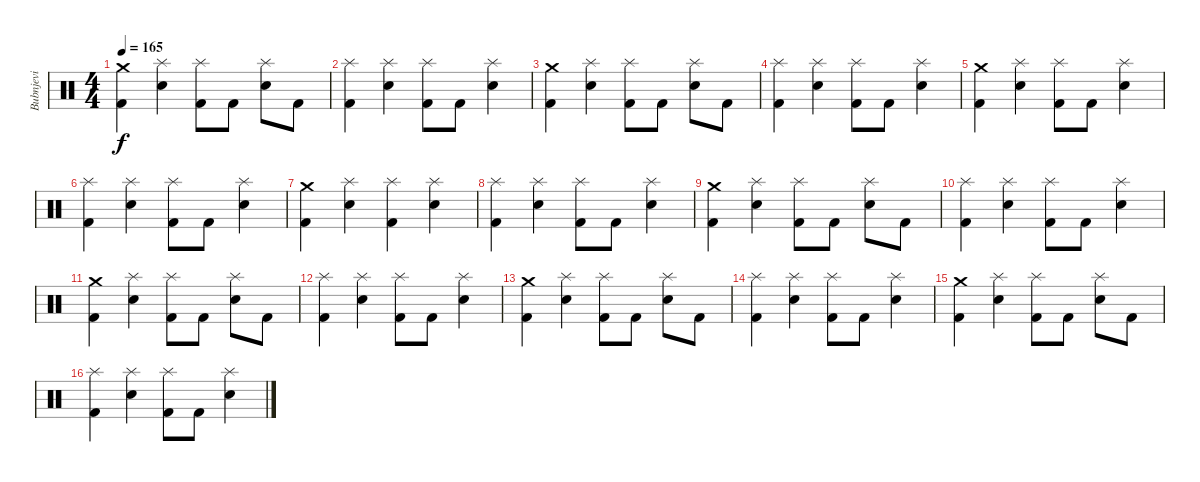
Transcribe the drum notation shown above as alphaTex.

\track ("Bubnjevi" "Bubnjevi") {instrument percussion}
\staff {score}
\articulation defaults
\ts (4 4)
\tempo 165
\clef neutral
\ks c
("Crash medium (hit)" "Kick (hit) 2").4{dy f} ("Splash (hit)" "Electric Snare (hit)").4 ("Splash (hit)" "Kick (hit) 2").8 "Kick (hit) 2".8 ("Splash (hit)" "Electric Snare (hit)").8 "Kick (hit) 2".8 |
("Splash (hit)" "Kick (hit) 2").4 ("Splash (hit)" "Electric Snare (hit)").4 ("Splash (hit)" "Kick (hit) 2").8 "Kick (hit) 2".8 ("Splash (hit)" "Electric Snare (hit)").4 |
("Crash medium (hit)" "Kick (hit) 2").4 ("Splash (hit)" "Electric Snare (hit)").4 ("Splash (hit)" "Kick (hit) 2").8 "Kick (hit) 2".8 ("Splash (hit)" "Electric Snare (hit)").8 "Kick (hit) 2".8 |
("Splash (hit)" "Kick (hit) 2").4 ("Splash (hit)" "Electric Snare (hit)").4 ("Splash (hit)" "Kick (hit) 2").8 "Kick (hit) 2".8 ("Splash (hit)" "Electric Snare (hit)").4 |
("Crash medium (hit)" "Kick (hit) 2").4 ("Splash (hit)" "Electric Snare (hit)").4 ("Splash (hit)" "Kick (hit) 2").8 "Kick (hit) 2".8 ("Splash (hit)" "Electric Snare (hit)").4 |
("Splash (hit)" "Kick (hit) 2").4 ("Splash (hit)" "Electric Snare (hit)").4 ("Splash (hit)" "Kick (hit) 2").8 "Kick (hit) 2".8 ("Splash (hit)" "Electric Snare (hit)").4 |
("Crash medium (hit)" "Kick (hit) 2").4 ("Splash (hit)" "Electric Snare (hit)").4 ("Splash (hit)" "Kick (hit) 2").4 ("Splash (hit)" "Electric Snare (hit)").4 |
("Splash (hit)" "Kick (hit) 2").4 ("Splash (hit)" "Electric Snare (hit)").4 ("Splash (hit)" "Kick (hit) 2").8 "Kick (hit) 2".8 ("Splash (hit)" "Electric Snare (hit)").4 |
("Crash medium (hit)" "Kick (hit) 2").4 ("Splash (hit)" "Electric Snare (hit)").4 ("Splash (hit)" "Kick (hit) 2").8 "Kick (hit) 2".8 ("Splash (hit)" "Electric Snare (hit)").8 "Kick (hit) 2".8 |
("Splash (hit)" "Kick (hit) 2").4 ("Splash (hit)" "Electric Snare (hit)").4 ("Splash (hit)" "Kick (hit) 2").8 "Kick (hit) 2".8 ("Splash (hit)" "Electric Snare (hit)").4 |
("Crash medium (hit)" "Kick (hit) 2").4 ("Splash (hit)" "Electric Snare (hit)").4 ("Splash (hit)" "Kick (hit) 2").8 "Kick (hit) 2".8 ("Splash (hit)" "Electric Snare (hit)").8 "Kick (hit) 2".8 |
("Splash (hit)" "Kick (hit) 2").4 ("Splash (hit)" "Electric Snare (hit)").4 ("Splash (hit)" "Kick (hit) 2").8 "Kick (hit) 2".8 ("Splash (hit)" "Electric Snare (hit)").4 |
("Crash medium (hit)" "Kick (hit) 2").4 ("Splash (hit)" "Electric Snare (hit)").4 ("Splash (hit)" "Kick (hit) 2").8 "Kick (hit) 2".8 ("Splash (hit)" "Electric Snare (hit)").8 "Kick (hit) 2".8 |
("Splash (hit)" "Kick (hit) 2").4 ("Splash (hit)" "Electric Snare (hit)").4 ("Splash (hit)" "Kick (hit) 2").8 "Kick (hit) 2".8 ("Splash (hit)" "Electric Snare (hit)").4 |
("Crash medium (hit)" "Kick (hit) 2").4 ("Splash (hit)" "Electric Snare (hit)").4 ("Splash (hit)" "Kick (hit) 2").8 "Kick (hit) 2".8 ("Splash (hit)" "Electric Snare (hit)").8 "Kick (hit) 2".8 |
("Splash (hit)" "Kick (hit) 2").4 ("Splash (hit)" "Electric Snare (hit)").4 ("Splash (hit)" "Kick (hit) 2").8 "Kick (hit) 2".8 ("Splash (hit)" "Electric Snare (hit)").4
